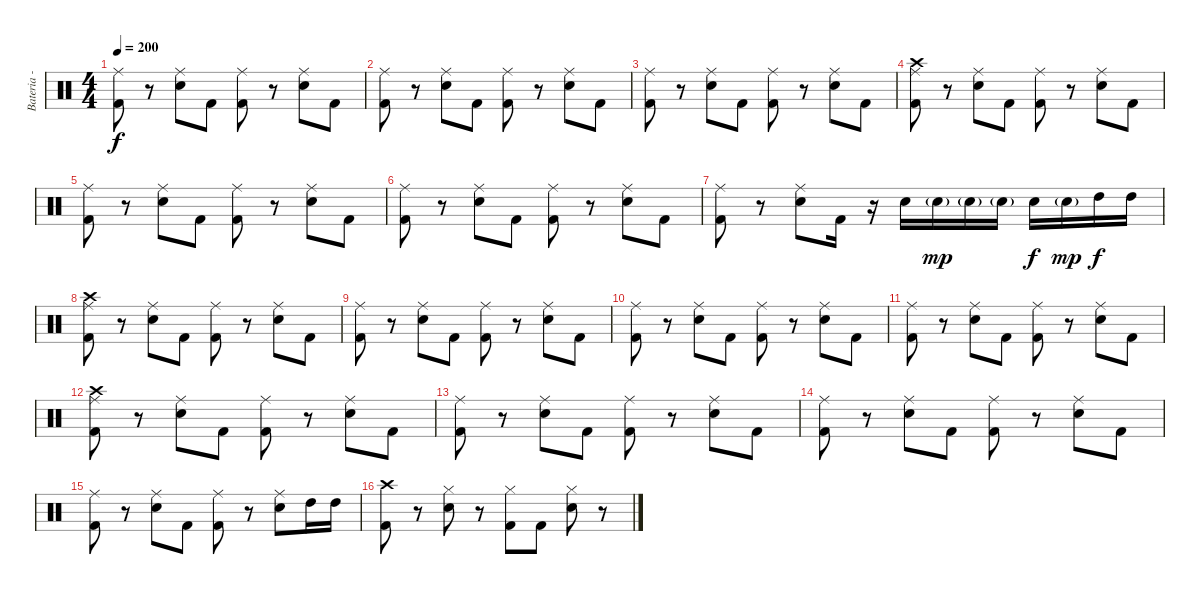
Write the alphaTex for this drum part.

\track ("Bateria - Larzon" "Bateria - ") {instrument percussion}
\staff {score}
\articulation defaults
\ts (4 4)
\tempo 200
\clef neutral
\ks c
("Kick (hit) 2" "Ride (middle)").8{dy f} r.8 ("Electric Snare (hit)" "Ride (middle)").8 "Kick (hit) 2".8 ("Kick (hit) 2" "Ride (middle)").8 r.8 ("Electric Snare (hit)" "Ride (middle)").8 "Kick (hit) 2".8 |
("Kick (hit) 2" "Ride (middle)").8 r.8 ("Electric Snare (hit)" "Ride (middle)").8 "Kick (hit) 2".8 ("Kick (hit) 2" "Ride (middle)").8 r.8 ("Electric Snare (hit)" "Ride (middle)").8 "Kick (hit) 2".8 |
("Kick (hit) 2" "Ride (middle)").8 r.8 ("Electric Snare (hit)" "Ride (middle)").8 "Kick (hit) 2".8 ("Kick (hit) 2" "Ride (middle)").8 r.8 ("Electric Snare (hit)" "Ride (middle)").8 "Kick (hit) 2".8 |
("Kick (hit) 2" "Ride (middle)" "Crash high (hit)").8 r.8 ("Electric Snare (hit)" "Ride (middle)").8 "Kick (hit) 2".8 ("Kick (hit) 2" "Ride (middle)").8 r.8 ("Electric Snare (hit)" "Ride (middle)").8 "Kick (hit) 2".8 |
("Kick (hit) 2" "Ride (middle)").8 r.8 ("Electric Snare (hit)" "Ride (middle)").8 "Kick (hit) 2".8 ("Kick (hit) 2" "Ride (middle)").8 r.8 ("Electric Snare (hit)" "Ride (middle)").8 "Kick (hit) 2".8 |
("Kick (hit) 2" "Ride (middle)").8 r.8 ("Electric Snare (hit)" "Ride (middle)").8 "Kick (hit) 2".8 ("Kick (hit) 2" "Ride (middle)").8 r.8 ("Electric Snare (hit)" "Ride (middle)").8 "Kick (hit) 2".8 |
("Kick (hit) 2" "Ride (middle)").8 r.8 ("Electric Snare (hit)" "Ride (middle)").8 "Kick (hit) 2".16 r.16 "Electric Snare (hit)".16 "Electric Snare (hit)"{g}.16{dy mp} "Electric Snare (hit)"{g}.16 "Electric Snare (hit)"{g}.16 "Electric Snare (hit)".16{dy f} "Electric Snare (hit)"{g}.16{dy mp} "High Tom (hit)".16{dy f} "High Tom (hit)".16 |
("Kick (hit) 2" "Ride (middle)" "Crash high (hit)").8 r.8 ("Electric Snare (hit)" "Ride (middle)").8 "Kick (hit) 2".8 ("Kick (hit) 2" "Ride (middle)").8 r.8 ("Electric Snare (hit)" "Ride (middle)").8 "Kick (hit) 2".8 |
("Kick (hit) 2" "Ride (middle)").8 r.8 ("Electric Snare (hit)" "Ride (middle)").8 "Kick (hit) 2".8 ("Kick (hit) 2" "Ride (middle)").8 r.8 ("Electric Snare (hit)" "Ride (middle)").8 "Kick (hit) 2".8 |
("Kick (hit) 2" "Ride (middle)").8 r.8 ("Electric Snare (hit)" "Ride (middle)").8 "Kick (hit) 2".8 ("Kick (hit) 2" "Ride (middle)").8 r.8 ("Electric Snare (hit)" "Ride (middle)").8 "Kick (hit) 2".8 |
("Kick (hit) 2" "Ride (middle)").8 r.8 ("Electric Snare (hit)" "Ride (middle)").8 "Kick (hit) 2".8 ("Kick (hit) 2" "Ride (middle)").8 r.8 ("Electric Snare (hit)" "Ride (middle)").8 "Kick (hit) 2".8 |
("Kick (hit) 2" "Ride (middle)" "Crash high (hit)").8 r.8 ("Electric Snare (hit)" "Ride (middle)").8 "Kick (hit) 2".8 ("Kick (hit) 2" "Ride (middle)").8 r.8 ("Electric Snare (hit)" "Ride (middle)").8 "Kick (hit) 2".8 |
("Kick (hit) 2" "Ride (middle)").8 r.8 ("Electric Snare (hit)" "Ride (middle)").8 "Kick (hit) 2".8 ("Kick (hit) 2" "Ride (middle)").8 r.8 ("Electric Snare (hit)" "Ride (middle)").8 "Kick (hit) 2".8 |
("Kick (hit) 2" "Ride (middle)").8 r.8 ("Electric Snare (hit)" "Ride (middle)").8 "Kick (hit) 2".8 ("Kick (hit) 2" "Ride (middle)").8 r.8 ("Electric Snare (hit)" "Ride (middle)").8 "Kick (hit) 2".8 |
("Kick (hit) 2" "Ride (middle)").8 r.8 ("Electric Snare (hit)" "Ride (middle)").8 "Kick (hit) 2".8 ("Kick (hit) 2" "Ride (middle)").8 r.8 ("Electric Snare (hit)" "Ride (middle)").8 "High Tom (hit)".16 "High Tom (hit)".16 |
("Kick (hit) 2" "Crash high (hit)").8 r.8 ("Electric Snare (hit)" "Hi-Hat (closed)").8 r.8 ("Kick (hit) 2" "Hi-Hat (closed)").8 "Kick (hit) 2".8 ("Electric Snare (hit)" "Hi-Hat (closed)").8 r.8
